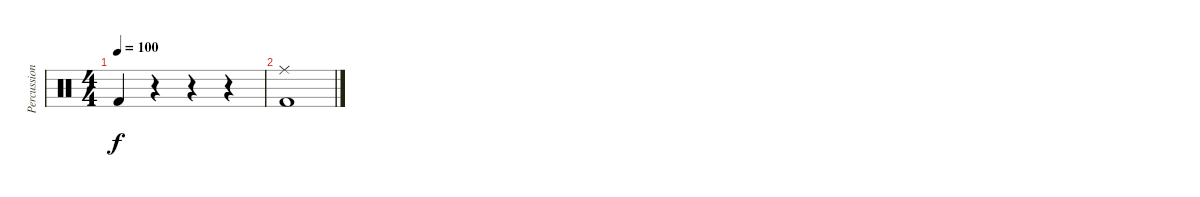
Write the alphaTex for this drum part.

\track ("Percussion" "Percussion") {instrument percussion}
\staff {score}
\articulation defaults
\ts (4 4)
\tempo 100
\clef neutral
\ks c "Kick (hit) 2".4{dy f}
r.4 r.4 r.4 |
("Ride (middle)" "Kick (hit) 2").1
